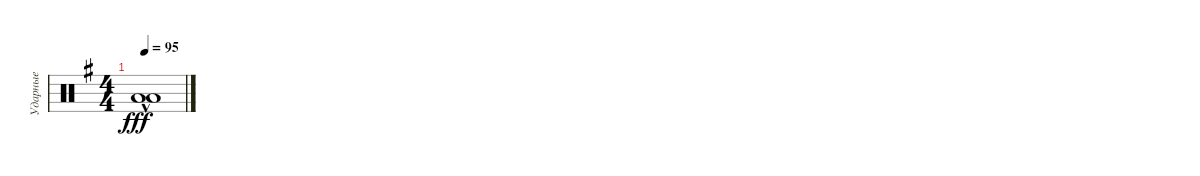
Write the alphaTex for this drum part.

\track ("Ударные" "Ударные") {instrument percussion}
\staff {score}
\articulation defaults
\ts (4 4)
\tempo 95
\clef neutral
\ks eminor
("Low Tom (hit)" "Low Floor Tom (hit)"{hac}).1{dy fff}
